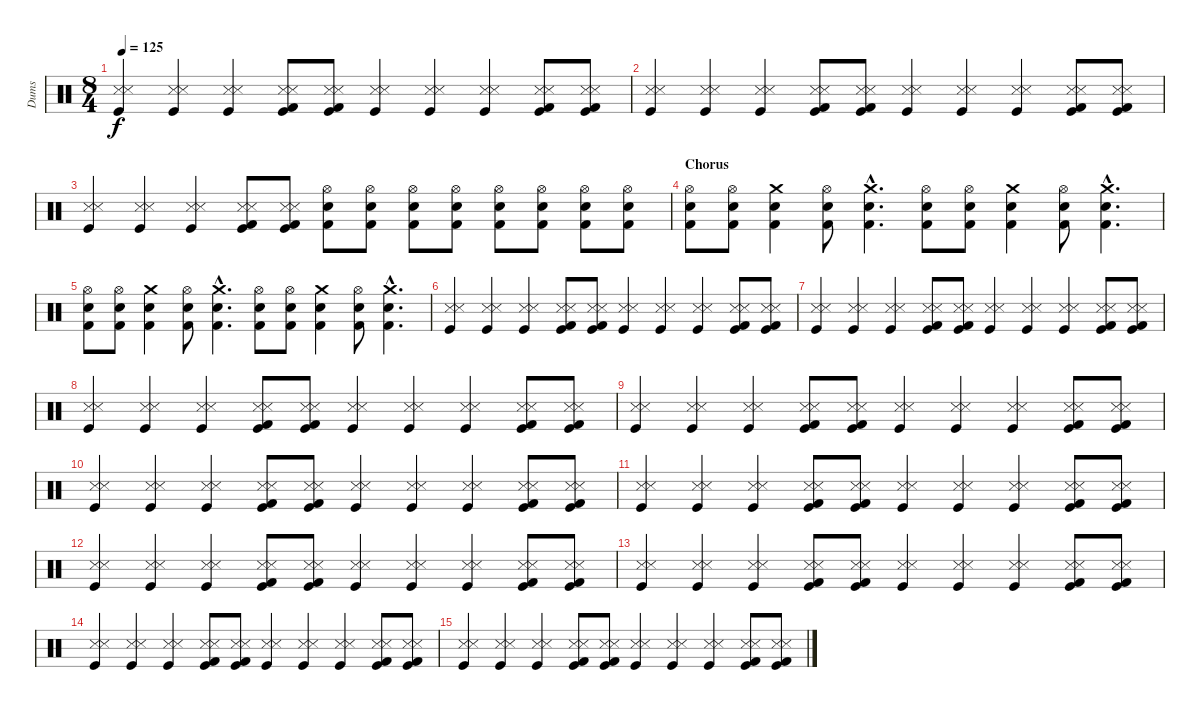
\track ("Dums" "Dums") {instrument percussion}
\staff {score}
\articulation defaults
\ts (8 4)
\tempo 125
\clef neutral
\ks c
("Snare (side stick) 3" "Metronome (hit)" "Kick (hit)").4{dy f} ("Snare (side stick) 3" "Metronome (hit)" "Kick (hit)").4 ("Snare (side stick) 3" "Metronome (hit)" "Kick (hit)").4 ("Snare (side stick) 3" "Metronome (hit)" "Kick (hit)" "Kick (hit) 2").8 ("Snare (side stick) 3" "Metronome (hit)" "Kick (hit)" "Kick (hit) 2").8 ("Snare (side stick) 3" "Metronome (hit)" "Kick (hit)").4 ("Snare (side stick) 3" "Metronome (hit)" "Kick (hit)").4 ("Snare (side stick) 3" "Metronome (hit)" "Kick (hit)").4 ("Snare (side stick) 3" "Metronome (hit)" "Kick (hit)" "Kick (hit) 2").8 ("Snare (side stick) 3" "Metronome (hit)" "Kick (hit)" "Kick (hit) 2").8 |
("Snare (side stick) 3" "Metronome (hit)" "Kick (hit)").4 ("Snare (side stick) 3" "Metronome (hit)" "Kick (hit)").4 ("Snare (side stick) 3" "Metronome (hit)" "Kick (hit)").4 ("Snare (side stick) 3" "Metronome (hit)" "Kick (hit)" "Kick (hit) 2").8 ("Snare (side stick) 3" "Metronome (hit)" "Kick (hit)" "Kick (hit) 2").8 ("Snare (side stick) 3" "Metronome (hit)" "Kick (hit)").4 ("Snare (side stick) 3" "Metronome (hit)" "Kick (hit)").4 ("Snare (side stick) 3" "Metronome (hit)" "Kick (hit)").4 ("Snare (side stick) 3" "Metronome (hit)" "Kick (hit)" "Kick (hit) 2").8 ("Snare (side stick) 3" "Metronome (hit)" "Kick (hit)" "Kick (hit) 2").8 |
("Snare (side stick) 3" "Metronome (hit)" "Kick (hit)").4 ("Snare (side stick) 3" "Metronome (hit)" "Kick (hit)").4 ("Snare (side stick) 3" "Metronome (hit)" "Kick (hit)").4 ("Snare (side stick) 3" "Metronome (hit)" "Kick (hit)" "Kick (hit) 2").8 ("Snare (side stick) 3" "Metronome (hit)" "Kick (hit)" "Kick (hit) 2").8 ("Kick (hit) 2" "Electric Snare (hit)" "Hi-Hat (open)").8 ("Kick (hit) 2" "Electric Snare (hit)" "Hi-Hat (open)").8 ("Kick (hit) 2" "Electric Snare (hit)" "Hi-Hat (open)").8 ("Kick (hit) 2" "Electric Snare (hit)" "Hi-Hat (open)").8 ("Kick (hit) 2" "Electric Snare (hit)" "Hi-Hat (open)").8 ("Kick (hit) 2" "Electric Snare (hit)" "Hi-Hat (open)").8 ("Kick (hit) 2" "Electric Snare (hit)" "Hi-Hat (open)").8 ("Kick (hit) 2" "Electric Snare (hit)" "Hi-Hat (open)").8 |
\section ("" "Chorus")
("Kick (hit) 2" "Electric Snare (hit)" "Hi-Hat (open)").8 ("Kick (hit) 2" "Electric Snare (hit)" "Hi-Hat (open)").8 ("Kick (hit) 2" "Electric Snare (hit)" "Crash medium (hit)").4 ("Kick (hit) 2" "Electric Snare (hit)" "Hi-Hat (open)").8 ("Kick (hit) 2"{hac} "Electric Snare (hit)"{hac} "Crash medium (hit)"{hac}).4{d} ("Kick (hit) 2" "Electric Snare (hit)" "Hi-Hat (open)").8 ("Kick (hit) 2" "Electric Snare (hit)" "Hi-Hat (open)").8 ("Kick (hit) 2" "Electric Snare (hit)" "Crash medium (hit)").4 ("Kick (hit) 2" "Electric Snare (hit)" "Hi-Hat (open)").8 ("Kick (hit) 2"{hac} "Electric Snare (hit)"{hac} "Crash medium (hit)"{hac}).4{d} |
("Kick (hit) 2" "Electric Snare (hit)" "Hi-Hat (open)").8 ("Kick (hit) 2" "Electric Snare (hit)" "Hi-Hat (open)").8 ("Kick (hit) 2" "Electric Snare (hit)" "Crash medium (hit)").4 ("Kick (hit) 2" "Electric Snare (hit)" "Hi-Hat (open)").8 ("Kick (hit) 2"{hac} "Electric Snare (hit)"{hac} "Crash medium (hit)"{hac}).4{d} ("Kick (hit) 2" "Electric Snare (hit)" "Hi-Hat (open)").8 ("Kick (hit) 2" "Electric Snare (hit)" "Hi-Hat (open)").8 ("Kick (hit) 2" "Electric Snare (hit)" "Crash medium (hit)").4 ("Kick (hit) 2" "Electric Snare (hit)" "Hi-Hat (open)").8 ("Kick (hit) 2"{hac} "Electric Snare (hit)"{hac} "Crash medium (hit)"{hac}).4{d} |
("Snare (side stick) 3" "Metronome (hit)" "Kick (hit)").4 ("Snare (side stick) 3" "Metronome (hit)" "Kick (hit)").4 ("Snare (side stick) 3" "Metronome (hit)" "Kick (hit)").4 ("Snare (side stick) 3" "Metronome (hit)" "Kick (hit)" "Kick (hit) 2").8 ("Snare (side stick) 3" "Metronome (hit)" "Kick (hit)" "Kick (hit) 2").8 ("Snare (side stick) 3" "Metronome (hit)" "Kick (hit)").4 ("Snare (side stick) 3" "Metronome (hit)" "Kick (hit)").4 ("Snare (side stick) 3" "Metronome (hit)" "Kick (hit)").4 ("Snare (side stick) 3" "Metronome (hit)" "Kick (hit)" "Kick (hit) 2").8 ("Snare (side stick) 3" "Metronome (hit)" "Kick (hit)" "Kick (hit) 2").8 |
("Snare (side stick) 3" "Metronome (hit)" "Kick (hit)").4 ("Snare (side stick) 3" "Metronome (hit)" "Kick (hit)").4 ("Snare (side stick) 3" "Metronome (hit)" "Kick (hit)").4 ("Snare (side stick) 3" "Metronome (hit)" "Kick (hit)" "Kick (hit) 2").8 ("Snare (side stick) 3" "Metronome (hit)" "Kick (hit)" "Kick (hit) 2").8 ("Snare (side stick) 3" "Metronome (hit)" "Kick (hit)").4 ("Snare (side stick) 3" "Metronome (hit)" "Kick (hit)").4 ("Snare (side stick) 3" "Metronome (hit)" "Kick (hit)").4 ("Snare (side stick) 3" "Metronome (hit)" "Kick (hit)" "Kick (hit) 2").8 ("Snare (side stick) 3" "Metronome (hit)" "Kick (hit)" "Kick (hit) 2").8 |
("Snare (side stick) 3" "Metronome (hit)" "Kick (hit)").4 ("Snare (side stick) 3" "Metronome (hit)" "Kick (hit)").4 ("Snare (side stick) 3" "Metronome (hit)" "Kick (hit)").4 ("Snare (side stick) 3" "Metronome (hit)" "Kick (hit)" "Kick (hit) 2").8 ("Snare (side stick) 3" "Metronome (hit)" "Kick (hit)" "Kick (hit) 2").8 ("Snare (side stick) 3" "Metronome (hit)" "Kick (hit)").4 ("Snare (side stick) 3" "Metronome (hit)" "Kick (hit)").4 ("Snare (side stick) 3" "Metronome (hit)" "Kick (hit)").4 ("Snare (side stick) 3" "Metronome (hit)" "Kick (hit)" "Kick (hit) 2").8 ("Snare (side stick) 3" "Metronome (hit)" "Kick (hit)" "Kick (hit) 2").8 |
("Snare (side stick) 3" "Metronome (hit)" "Kick (hit)").4 ("Snare (side stick) 3" "Metronome (hit)" "Kick (hit)").4 ("Snare (side stick) 3" "Metronome (hit)" "Kick (hit)").4 ("Snare (side stick) 3" "Metronome (hit)" "Kick (hit)" "Kick (hit) 2").8 ("Snare (side stick) 3" "Metronome (hit)" "Kick (hit)" "Kick (hit) 2").8 ("Snare (side stick) 3" "Metronome (hit)" "Kick (hit)").4 ("Snare (side stick) 3" "Metronome (hit)" "Kick (hit)").4 ("Snare (side stick) 3" "Metronome (hit)" "Kick (hit)").4 ("Snare (side stick) 3" "Metronome (hit)" "Kick (hit)" "Kick (hit) 2").8 ("Snare (side stick) 3" "Metronome (hit)" "Kick (hit)" "Kick (hit) 2").8 |
("Snare (side stick) 3" "Metronome (hit)" "Kick (hit)").4 ("Snare (side stick) 3" "Metronome (hit)" "Kick (hit)").4 ("Snare (side stick) 3" "Metronome (hit)" "Kick (hit)").4 ("Snare (side stick) 3" "Metronome (hit)" "Kick (hit)" "Kick (hit) 2").8 ("Snare (side stick) 3" "Metronome (hit)" "Kick (hit)" "Kick (hit) 2").8 ("Snare (side stick) 3" "Metronome (hit)" "Kick (hit)").4 ("Snare (side stick) 3" "Metronome (hit)" "Kick (hit)").4 ("Snare (side stick) 3" "Metronome (hit)" "Kick (hit)").4 ("Snare (side stick) 3" "Metronome (hit)" "Kick (hit)" "Kick (hit) 2").8 ("Snare (side stick) 3" "Metronome (hit)" "Kick (hit)" "Kick (hit) 2").8 |
("Snare (side stick) 3" "Metronome (hit)" "Kick (hit)").4 ("Snare (side stick) 3" "Metronome (hit)" "Kick (hit)").4 ("Snare (side stick) 3" "Metronome (hit)" "Kick (hit)").4 ("Snare (side stick) 3" "Metronome (hit)" "Kick (hit)" "Kick (hit) 2").8 ("Snare (side stick) 3" "Metronome (hit)" "Kick (hit)" "Kick (hit) 2").8 ("Snare (side stick) 3" "Metronome (hit)" "Kick (hit)").4 ("Snare (side stick) 3" "Metronome (hit)" "Kick (hit)").4 ("Snare (side stick) 3" "Metronome (hit)" "Kick (hit)").4 ("Snare (side stick) 3" "Metronome (hit)" "Kick (hit)" "Kick (hit) 2").8 ("Snare (side stick) 3" "Metronome (hit)" "Kick (hit)" "Kick (hit) 2").8 |
("Snare (side stick) 3" "Metronome (hit)" "Kick (hit)").4 ("Snare (side stick) 3" "Metronome (hit)" "Kick (hit)").4 ("Snare (side stick) 3" "Metronome (hit)" "Kick (hit)").4 ("Snare (side stick) 3" "Metronome (hit)" "Kick (hit)" "Kick (hit) 2").8 ("Snare (side stick) 3" "Metronome (hit)" "Kick (hit)" "Kick (hit) 2").8 ("Snare (side stick) 3" "Metronome (hit)" "Kick (hit)").4 ("Snare (side stick) 3" "Metronome (hit)" "Kick (hit)").4 ("Snare (side stick) 3" "Metronome (hit)" "Kick (hit)").4 ("Snare (side stick) 3" "Metronome (hit)" "Kick (hit)" "Kick (hit) 2").8 ("Snare (side stick) 3" "Metronome (hit)" "Kick (hit)" "Kick (hit) 2").8 |
("Snare (side stick) 3" "Metronome (hit)" "Kick (hit)").4 ("Snare (side stick) 3" "Metronome (hit)" "Kick (hit)").4 ("Snare (side stick) 3" "Metronome (hit)" "Kick (hit)").4 ("Snare (side stick) 3" "Metronome (hit)" "Kick (hit)" "Kick (hit) 2").8 ("Snare (side stick) 3" "Metronome (hit)" "Kick (hit)" "Kick (hit) 2").8 ("Snare (side stick) 3" "Metronome (hit)" "Kick (hit)").4 ("Snare (side stick) 3" "Metronome (hit)" "Kick (hit)").4 ("Snare (side stick) 3" "Metronome (hit)" "Kick (hit)").4 ("Snare (side stick) 3" "Metronome (hit)" "Kick (hit)" "Kick (hit) 2").8 ("Snare (side stick) 3" "Metronome (hit)" "Kick (hit)" "Kick (hit) 2").8 |
("Snare (side stick) 3" "Metronome (hit)" "Kick (hit)").4 ("Snare (side stick) 3" "Metronome (hit)" "Kick (hit)").4 ("Snare (side stick) 3" "Metronome (hit)" "Kick (hit)").4 ("Snare (side stick) 3" "Metronome (hit)" "Kick (hit)" "Kick (hit) 2").8 ("Snare (side stick) 3" "Metronome (hit)" "Kick (hit)" "Kick (hit) 2").8 ("Snare (side stick) 3" "Metronome (hit)" "Kick (hit)").4 ("Snare (side stick) 3" "Metronome (hit)" "Kick (hit)").4 ("Snare (side stick) 3" "Metronome (hit)" "Kick (hit)").4 ("Snare (side stick) 3" "Metronome (hit)" "Kick (hit)" "Kick (hit) 2").8 ("Snare (side stick) 3" "Metronome (hit)" "Kick (hit)" "Kick (hit) 2").8 |
("Snare (side stick) 3" "Metronome (hit)" "Kick (hit)").4 ("Snare (side stick) 3" "Metronome (hit)" "Kick (hit)").4 ("Snare (side stick) 3" "Metronome (hit)" "Kick (hit)").4 ("Snare (side stick) 3" "Metronome (hit)" "Kick (hit)" "Kick (hit) 2").8 ("Snare (side stick) 3" "Metronome (hit)" "Kick (hit)" "Kick (hit) 2").8 ("Snare (side stick) 3" "Metronome (hit)" "Kick (hit)").4 ("Snare (side stick) 3" "Metronome (hit)" "Kick (hit)").4 ("Snare (side stick) 3" "Metronome (hit)" "Kick (hit)").4 ("Snare (side stick) 3" "Metronome (hit)" "Kick (hit)" "Kick (hit) 2").8 ("Snare (side stick) 3" "Metronome (hit)" "Kick (hit)" "Kick (hit) 2").8
